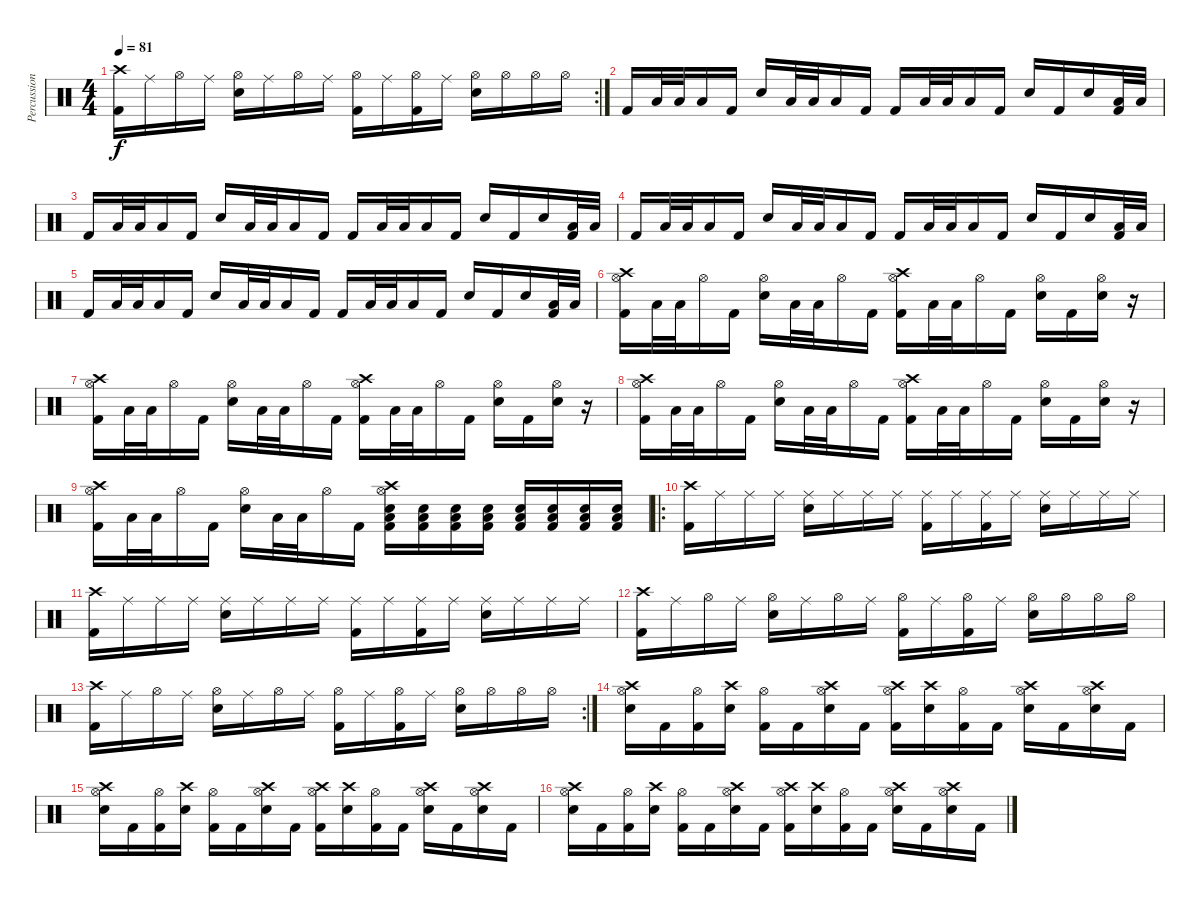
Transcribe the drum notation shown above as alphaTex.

\track ("Percussion" "Percussion") {instrument percussion}
\staff {score}
\articulation defaults
\rc 2
\ts (4 4)
\tempo 81
\clef neutral
\ks c
("Crash high (hit)" "Kick (hit) 2").16{dy f} "Ride (middle)".16 "Hi-Hat (open)".16 "Ride (middle)".16 ("Hi-Hat (open)" "Snare (hit) 2").16 "Ride (middle)".16 "Hi-Hat (open)".16 "Ride (middle)".16 ("Hi-Hat (open)" "Kick (hit) 2").16 "Ride (middle)".16 ("Hi-Hat (open)" "Kick (hit) 2").16 "Ride (middle)".16 ("Hi-Hat (open)" "Snare (hit) 2").16 "Hi-Hat (open)".16 "Hi-Hat (open)".16 "Hi-Hat (open)".16 |
"Kick (hit) 2".16 "Low Floor Tom (hit)".32 "Low Floor Tom (hit)".32 "Low Floor Tom (hit)".16 "Kick (hit) 2".16 "Snare (hit) 2".16 "Low Floor Tom (hit)".32 "Low Floor Tom (hit)".32 "Low Floor Tom (hit)".16 "Kick (hit) 2".16 "Kick (hit) 2".16 "Low Floor Tom (hit)".32 "Low Floor Tom (hit)".32 "Low Floor Tom (hit)".16 "Kick (hit) 2".16 "Snare (hit) 2".16 "Kick (hit) 2".16 "Snare (hit) 2".16 ("Low Floor Tom (hit)" "Kick (hit) 2").32 "Low Floor Tom (hit)".32 |
"Kick (hit) 2".16 "Low Floor Tom (hit)".32 "Low Floor Tom (hit)".32 "Low Floor Tom (hit)".16 "Kick (hit) 2".16 "Snare (hit) 2".16 "Low Floor Tom (hit)".32 "Low Floor Tom (hit)".32 "Low Floor Tom (hit)".16 "Kick (hit) 2".16 "Kick (hit) 2".16 "Low Floor Tom (hit)".32 "Low Floor Tom (hit)".32 "Low Floor Tom (hit)".16 "Kick (hit) 2".16 "Snare (hit) 2".16 "Kick (hit) 2".16 "Snare (hit) 2".16 ("Low Floor Tom (hit)" "Kick (hit) 2").32 "Low Floor Tom (hit)".32 |
"Kick (hit) 2".16 "Low Floor Tom (hit)".32 "Low Floor Tom (hit)".32 "Low Floor Tom (hit)".16 "Kick (hit) 2".16 "Snare (hit) 2".16 "Low Floor Tom (hit)".32 "Low Floor Tom (hit)".32 "Low Floor Tom (hit)".16 "Kick (hit) 2".16 "Kick (hit) 2".16 "Low Floor Tom (hit)".32 "Low Floor Tom (hit)".32 "Low Floor Tom (hit)".16 "Kick (hit) 2".16 "Snare (hit) 2".16 "Kick (hit) 2".16 "Snare (hit) 2".16 ("Low Floor Tom (hit)" "Kick (hit) 2").32 "Low Floor Tom (hit)".32 |
"Kick (hit) 2".16 "Low Floor Tom (hit)".32 "Low Floor Tom (hit)".32 "Low Floor Tom (hit)".16 "Kick (hit) 2".16 "Snare (hit) 2".16 "Low Floor Tom (hit)".32 "Low Floor Tom (hit)".32 "Low Floor Tom (hit)".16 "Kick (hit) 2".16 "Kick (hit) 2".16 "Low Floor Tom (hit)".32 "Low Floor Tom (hit)".32 "Low Floor Tom (hit)".16 "Kick (hit) 2".16 "Snare (hit) 2".16 "Kick (hit) 2".16 "Snare (hit) 2".16 ("Low Floor Tom (hit)" "Kick (hit) 2").32 "Low Floor Tom (hit)".32 |
("Crash high (hit)" "Hi-Hat (open)" "Kick (hit) 2").16 "Low Floor Tom (hit)".32 "Low Floor Tom (hit)".32 "Hi-Hat (open)".16 "Kick (hit) 2".16 ("Hi-Hat (open)" "Snare (hit) 2").16 "Low Floor Tom (hit)".32 "Low Floor Tom (hit)".32 "Hi-Hat (open)".16 "Kick (hit) 2".16 ("Crash high (hit)" "Hi-Hat (open)" "Kick (hit) 2").16 "Low Floor Tom (hit)".32 "Low Floor Tom (hit)".32 "Hi-Hat (open)".16 "Kick (hit) 2".16 ("Hi-Hat (open)" "Snare (hit) 2").16 "Kick (hit) 2".16 ("Hi-Hat (open)" "Snare (hit) 2").16 r.16 |
("Crash high (hit)" "Hi-Hat (open)" "Kick (hit) 2").16 "Low Floor Tom (hit)".32 "Low Floor Tom (hit)".32 "Hi-Hat (open)".16 "Kick (hit) 2".16 ("Hi-Hat (open)" "Snare (hit) 2").16 "Low Floor Tom (hit)".32 "Low Floor Tom (hit)".32 "Hi-Hat (open)".16 "Kick (hit) 2".16 ("Crash high (hit)" "Hi-Hat (open)" "Kick (hit) 2").16 "Low Floor Tom (hit)".32 "Low Floor Tom (hit)".32 "Hi-Hat (open)".16 "Kick (hit) 2".16 ("Hi-Hat (open)" "Snare (hit) 2").16 "Kick (hit) 2".16 ("Hi-Hat (open)" "Snare (hit) 2").16 r.16 |
("Crash high (hit)" "Hi-Hat (open)" "Kick (hit) 2").16 "Low Floor Tom (hit)".32 "Low Floor Tom (hit)".32 "Hi-Hat (open)".16 "Kick (hit) 2".16 ("Hi-Hat (open)" "Snare (hit) 2").16 "Low Floor Tom (hit)".32 "Low Floor Tom (hit)".32 "Hi-Hat (open)".16 "Kick (hit) 2".16 ("Crash high (hit)" "Hi-Hat (open)" "Kick (hit) 2").16 "Low Floor Tom (hit)".32 "Low Floor Tom (hit)".32 "Hi-Hat (open)".16 "Kick (hit) 2".16 ("Hi-Hat (open)" "Snare (hit) 2").16 "Kick (hit) 2".16 ("Hi-Hat (open)" "Snare (hit) 2").16 r.16 |
("Crash high (hit)" "Hi-Hat (open)" "Kick (hit) 2").16 "Low Floor Tom (hit)".32 "Low Floor Tom (hit)".32 "Hi-Hat (open)".16 "Kick (hit) 2".16 ("Hi-Hat (open)" "Snare (hit) 2").16 "Low Floor Tom (hit)".32 "Low Floor Tom (hit)".32 "Hi-Hat (open)".16 "Kick (hit) 2".16 ("Crash high (hit)" "Hi-Hat (open)" "Snare (hit) 2" "Low Floor Tom (hit)" "Kick (hit) 2").16 ("Snare (hit) 2" "Low Floor Tom (hit)" "Kick (hit) 2").16 ("Snare (hit) 2" "Low Floor Tom (hit)" "Kick (hit) 2").16 ("Snare (hit) 2" "Low Floor Tom (hit)" "Kick (hit) 2").16 ("Snare (hit) 2" "Low Floor Tom (hit)" "Kick (hit) 2").16 ("Snare (hit) 2" "Low Floor Tom (hit)" "Kick (hit) 2").16 ("Snare (hit) 2" "Low Floor Tom (hit)" "Kick (hit) 2").16 ("Snare (hit) 2" "Low Floor Tom (hit)" "Kick (hit) 2").16 |
\ro
("Crash high (hit)" "Kick (hit) 2").16 "Ride (middle)".16 "Ride (middle)".16 "Ride (middle)".16 ("Ride (middle)" "Snare (hit) 2").16 "Ride (middle)".16 "Ride (middle)".16 "Ride (middle)".16 ("Ride (middle)" "Kick (hit) 2").16 "Ride (middle)".16 ("Ride (middle)" "Kick (hit) 2").16 "Ride (middle)".16 ("Ride (middle)" "Snare (hit) 2").16 "Ride (middle)".16 "Ride (middle)".16 "Ride (middle)".16 |
("Crash high (hit)" "Kick (hit) 2").16 "Ride (middle)".16 "Ride (middle)".16 "Ride (middle)".16 ("Ride (middle)" "Snare (hit) 2").16 "Ride (middle)".16 "Ride (middle)".16 "Ride (middle)".16 ("Ride (middle)" "Kick (hit) 2").16 "Ride (middle)".16 ("Ride (middle)" "Kick (hit) 2").16 "Ride (middle)".16 ("Ride (middle)" "Snare (hit) 2").16 "Ride (middle)".16 "Ride (middle)".16 "Ride (middle)".16 |
("Crash high (hit)" "Kick (hit) 2").16 "Ride (middle)".16 "Hi-Hat (open)".16 "Ride (middle)".16 ("Hi-Hat (open)" "Snare (hit) 2").16 "Ride (middle)".16 "Hi-Hat (open)".16 "Ride (middle)".16 ("Hi-Hat (open)" "Kick (hit) 2").16 "Ride (middle)".16 ("Hi-Hat (open)" "Kick (hit) 2").16 "Ride (middle)".16 ("Hi-Hat (open)" "Snare (hit) 2").16 "Hi-Hat (open)".16 "Hi-Hat (open)".16 "Hi-Hat (open)".16 |
\rc 2
("Crash high (hit)" "Kick (hit) 2").16 "Ride (middle)".16 "Hi-Hat (open)".16 "Ride (middle)".16 ("Hi-Hat (open)" "Snare (hit) 2").16 "Ride (middle)".16 "Hi-Hat (open)".16 "Ride (middle)".16 ("Hi-Hat (open)" "Kick (hit) 2").16 "Ride (middle)".16 ("Hi-Hat (open)" "Kick (hit) 2").16 "Ride (middle)".16 ("Hi-Hat (open)" "Snare (hit) 2").16 "Hi-Hat (open)".16 "Hi-Hat (open)".16 "Hi-Hat (open)".16 |
("Crash high (hit)" "Hi-Hat (open)" "Snare (hit) 2").16 "Kick (hit) 2".16 ("Hi-Hat (open)" "Kick (hit) 2").16 ("Crash high (hit)" "Snare (hit) 2").16 ("Hi-Hat (open)" "Kick (hit) 2").16 "Kick (hit) 2".16 ("Crash high (hit)" "Hi-Hat (open)" "Snare (hit) 2").16 "Kick (hit) 2".16 ("Crash high (hit)" "Hi-Hat (open)" "Kick (hit) 2").16 ("Crash high (hit)" "Snare (hit) 2").16 ("Hi-Hat (open)" "Kick (hit) 2").16 "Kick (hit) 2".16 ("Crash high (hit)" "Hi-Hat (open)" "Snare (hit) 2").16 "Kick (hit) 2".16 ("Crash high (hit)" "Hi-Hat (open)" "Snare (hit) 2").16 "Kick (hit) 2".16 |
("Crash high (hit)" "Hi-Hat (open)" "Snare (hit) 2").16 "Kick (hit) 2".16 ("Hi-Hat (open)" "Kick (hit) 2").16 ("Crash high (hit)" "Snare (hit) 2").16 ("Hi-Hat (open)" "Kick (hit) 2").16 "Kick (hit) 2".16 ("Crash high (hit)" "Hi-Hat (open)" "Snare (hit) 2").16 "Kick (hit) 2".16 ("Crash high (hit)" "Hi-Hat (open)" "Kick (hit) 2").16 ("Crash high (hit)" "Snare (hit) 2").16 ("Hi-Hat (open)" "Kick (hit) 2").16 "Kick (hit) 2".16 ("Crash high (hit)" "Hi-Hat (open)" "Snare (hit) 2").16 "Kick (hit) 2".16 ("Crash high (hit)" "Hi-Hat (open)" "Snare (hit) 2").16 "Kick (hit) 2".16 |
("Crash high (hit)" "Hi-Hat (open)" "Snare (hit) 2").16 "Kick (hit) 2".16 ("Hi-Hat (open)" "Kick (hit) 2").16 ("Crash high (hit)" "Snare (hit) 2").16 ("Hi-Hat (open)" "Kick (hit) 2").16 "Kick (hit) 2".16 ("Crash high (hit)" "Hi-Hat (open)" "Snare (hit) 2").16 "Kick (hit) 2".16 ("Crash high (hit)" "Hi-Hat (open)" "Kick (hit) 2").16 ("Crash high (hit)" "Snare (hit) 2").16 ("Hi-Hat (open)" "Kick (hit) 2").16 "Kick (hit) 2".16 ("Crash high (hit)" "Hi-Hat (open)" "Snare (hit) 2").16 "Kick (hit) 2".16 ("Crash high (hit)" "Hi-Hat (open)" "Snare (hit) 2").16 "Kick (hit) 2".16
